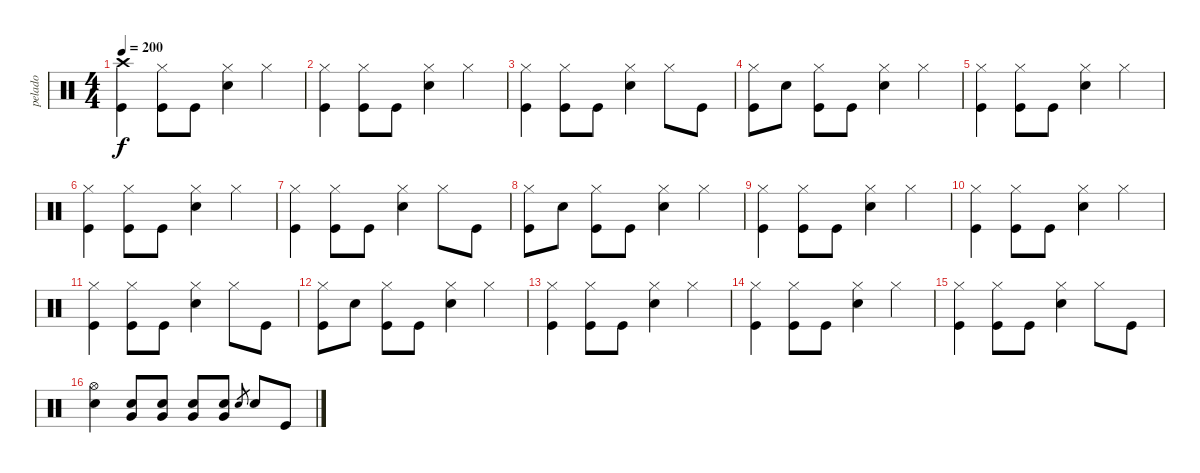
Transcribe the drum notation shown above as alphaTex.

\track ("pelado" "pelado") {instrument percussion}
\staff {score}
\articulation defaults
\ts (4 4)
\tempo 200
\clef neutral
\ks c
("Crash high (hit)" "Kick (hit)").4{dy f} ("Hi-Hat (closed)" "Kick (hit)").8 "Kick (hit)".8 ("Hi-Hat (closed)" "Electric Snare (hit)").4 "Hi-Hat (closed)".4 |
("Hi-Hat (closed)" "Kick (hit)").4 ("Hi-Hat (closed)" "Kick (hit)").8 "Kick (hit)".8 ("Hi-Hat (closed)" "Electric Snare (hit)").4 "Hi-Hat (closed)".4 |
("Hi-Hat (closed)" "Kick (hit)").4 ("Hi-Hat (closed)" "Kick (hit)").8 "Kick (hit)".8 ("Hi-Hat (closed)" "Electric Snare (hit)").4 "Hi-Hat (closed)".8 "Kick (hit)".8 |
("Hi-Hat (closed)" "Kick (hit)").8 "Electric Snare (hit)".8 ("Hi-Hat (closed)" "Kick (hit)").8 "Kick (hit)".8 ("Hi-Hat (closed)" "Electric Snare (hit)").4 "Hi-Hat (closed)".4 |
("Hi-Hat (closed)" "Kick (hit)").4 ("Hi-Hat (closed)" "Kick (hit)").8 "Kick (hit)".8 ("Hi-Hat (closed)" "Electric Snare (hit)").4 "Hi-Hat (closed)".4 |
("Hi-Hat (closed)" "Kick (hit)").4 ("Hi-Hat (closed)" "Kick (hit)").8 "Kick (hit)".8 ("Hi-Hat (closed)" "Electric Snare (hit)").4 "Hi-Hat (closed)".4 |
("Hi-Hat (closed)" "Kick (hit)").4 ("Hi-Hat (closed)" "Kick (hit)").8 "Kick (hit)".8 ("Hi-Hat (closed)" "Electric Snare (hit)").4 "Hi-Hat (closed)".8 "Kick (hit)".8 |
("Hi-Hat (closed)" "Kick (hit)").8 "Electric Snare (hit)".8 ("Hi-Hat (closed)" "Kick (hit)").8 "Kick (hit)".8 ("Hi-Hat (closed)" "Electric Snare (hit)").4 "Hi-Hat (closed)".4 |
("Hi-Hat (closed)" "Kick (hit)").4 ("Hi-Hat (closed)" "Kick (hit)").8 "Kick (hit)".8 ("Hi-Hat (closed)" "Electric Snare (hit)").4 "Hi-Hat (closed)".4 |
("Hi-Hat (closed)" "Kick (hit)").4 ("Hi-Hat (closed)" "Kick (hit)").8 "Kick (hit)".8 ("Hi-Hat (closed)" "Electric Snare (hit)").4 "Hi-Hat (closed)".4 |
("Hi-Hat (closed)" "Kick (hit)").4 ("Hi-Hat (closed)" "Kick (hit)").8 "Kick (hit)".8 ("Hi-Hat (closed)" "Electric Snare (hit)").4 "Hi-Hat (closed)".8 "Kick (hit)".8 |
("Hi-Hat (closed)" "Kick (hit)").8 "Electric Snare (hit)".8 ("Hi-Hat (closed)" "Kick (hit)").8 "Kick (hit)".8 ("Hi-Hat (closed)" "Electric Snare (hit)").4 "Hi-Hat (closed)".4 |
("Hi-Hat (closed)" "Kick (hit)").4 ("Hi-Hat (closed)" "Kick (hit)").8 "Kick (hit)".8 ("Hi-Hat (closed)" "Electric Snare (hit)").4 "Hi-Hat (closed)".4 |
("Hi-Hat (closed)" "Kick (hit)").4 ("Hi-Hat (closed)" "Kick (hit)").8 "Kick (hit)".8 ("Hi-Hat (closed)" "Electric Snare (hit)").4 "Hi-Hat (closed)".4 |
("Hi-Hat (closed)" "Kick (hit)").4 ("Hi-Hat (closed)" "Kick (hit)").8 "Kick (hit)".8 ("Hi-Hat (closed)" "Electric Snare (hit)").4 "Hi-Hat (closed)".8 "Kick (hit)".8 |
("Hi-Hat (open)" "Electric Snare (hit)").4 ("Very Low Tom (hit)" "Electric Snare (hit)").8 ("Very Low Tom (hit)" "Electric Snare (hit)").8 ("Very Low Tom (hit)" "Electric Snare (hit)").8 ("Very Low Tom (hit)" "Electric Snare (hit)").8 "Electric Snare (hit)".8{gr} "Electric Snare (hit)".8 "Kick (hit)".8
